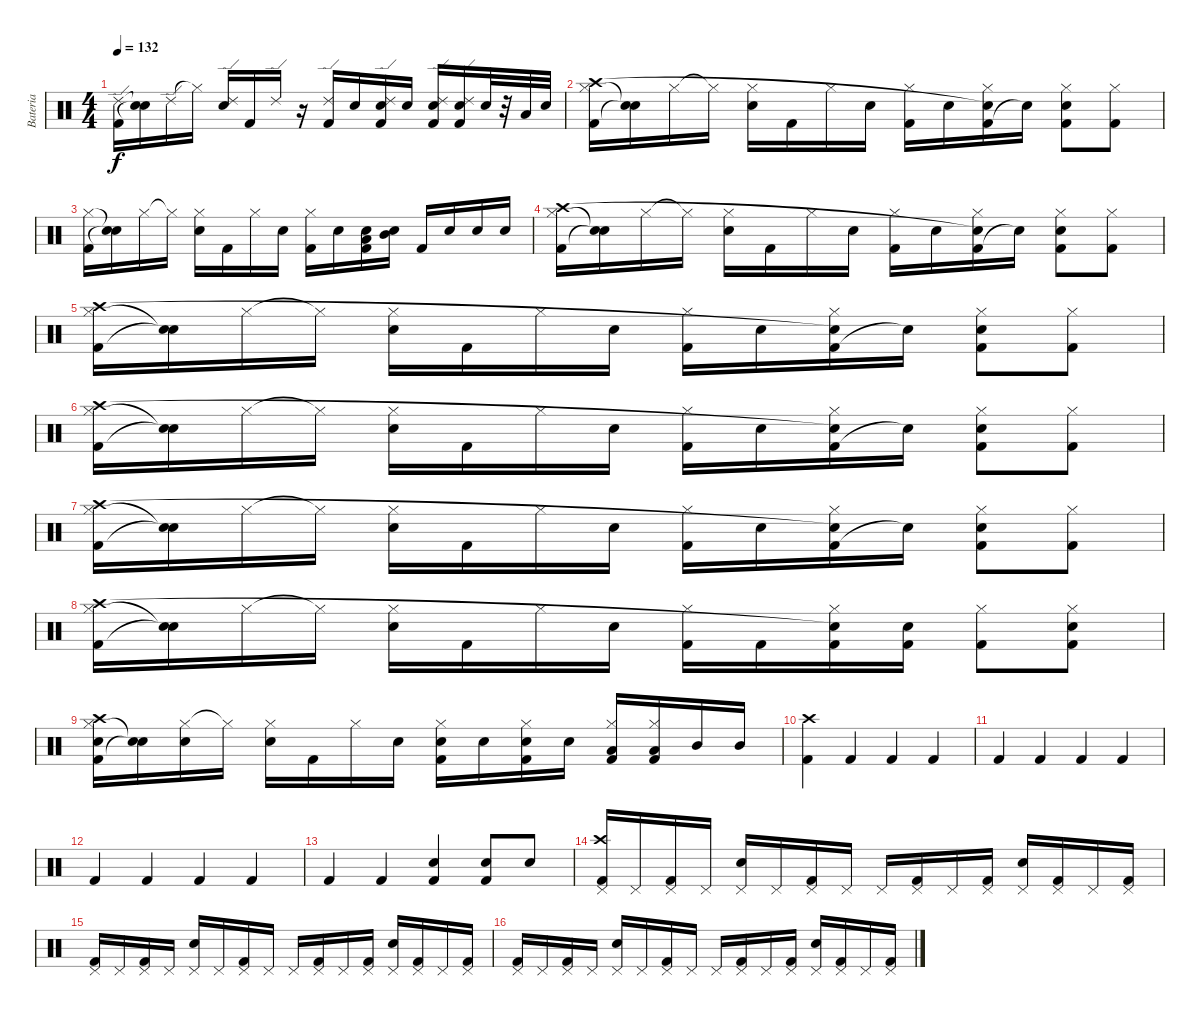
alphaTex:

\track ("Bateria" "Bateria") {instrument percussion}
\staff {score}
\articulation defaults
\ts (4 4)
\tempo 132
\clef neutral
\ks c
("Kick (hit) 2" "Ride (edge) 2").16{dy f} ("Snare (hit)"{t} "Electric Snare (hit)"{t}).16 "Ride (edge) 2".16 "Hi-Hat (closed)"{t}.16 ("Ride (edge) 2" "Electric Snare (hit)").16 "Kick (hit) 2".16 "Ride (edge) 2".16 r.16 ("Kick (hit) 2" "Ride (edge) 2").16 "Electric Snare (hit)".16 ("Kick (hit) 2" "Ride (edge) 2" "Snare (hit)"{t}).16 "Electric Snare (hit)".16 ("Kick (hit) 2" "Ride (edge) 2" "Electric Snare (hit)").16 ("Kick (hit) 2" "Ride (edge) 2" "Electric Snare (hit)").16 "Electric Snare (hit)".32 r.32 "Low Tom (hit)".32 "Electric Snare (hit)".32 |
("Kick (hit) 2" "Hi-Hat (closed)" "Crash high (hit)").16 ("Snare (hit)"{t} "Electric Snare (hit)"{t}).16 "Hi-Hat (closed)".16 "Hi-Hat (closed)"{t}.16 ("Hi-Hat (closed)" "Electric Snare (hit)").16 "Kick (hit) 2".16 "Hi-Hat (closed)".16 "Electric Snare (hit)".16 ("Kick (hit) 2" "Hi-Hat (closed)").16 "Electric Snare (hit)".16 ("Kick (hit) 2" "Hi-Hat (closed)" "Snare (hit)"{t}).16 "Electric Snare (hit)"{t}.16 ("Kick (hit) 2" "Hi-Hat (closed)" "Electric Snare (hit)").8 ("Kick (hit) 2" "Hi-Hat (closed)").8 |
("Kick (hit) 2" "Hi-Hat (closed)").16 ("Snare (hit)"{t} "Electric Snare (hit)"{t}).16 "Hi-Hat (closed)".16 "Hi-Hat (closed)"{t}.16 ("Hi-Hat (closed)" "Electric Snare (hit)").16 "Kick (hit) 2".16 "Hi-Hat (closed)".16 "Electric Snare (hit)".16 ("Kick (hit) 2" "Hi-Hat (closed)").16 "Electric Snare (hit)".16 ("Kick (hit) 2" "Electric Snare (hit)" "Low Tom (hit)").16 ("Electric Snare (hit)" "Mid Tom (hit)").16 "Kick (hit) 2".16 "Electric Snare (hit)".16 "Electric Snare (hit)".16 "Electric Snare (hit)".16 |
("Kick (hit) 2" "Hi-Hat (closed)" "Crash high (hit)").16 ("Snare (hit)"{t} "Electric Snare (hit)"{t}).16 "Hi-Hat (closed)".16 "Hi-Hat (closed)"{t}.16 ("Hi-Hat (closed)" "Electric Snare (hit)").16 "Kick (hit) 2".16 "Hi-Hat (closed)".16 "Electric Snare (hit)".16 ("Kick (hit) 2" "Hi-Hat (closed)").16 "Electric Snare (hit)".16 ("Kick (hit) 2" "Hi-Hat (closed)" "Snare (hit)"{t}).16 "Electric Snare (hit)"{t}.16 ("Kick (hit) 2" "Hi-Hat (closed)" "Electric Snare (hit)").8 ("Kick (hit) 2" "Hi-Hat (closed)").8 |
("Kick (hit) 2" "Hi-Hat (closed)" "Crash high (hit)").16 ("Snare (hit)"{t} "Electric Snare (hit)"{t}).16 "Hi-Hat (closed)".16 "Hi-Hat (closed)"{t}.16 ("Hi-Hat (closed)" "Electric Snare (hit)").16 "Kick (hit) 2".16 "Hi-Hat (closed)".16 "Electric Snare (hit)".16 ("Kick (hit) 2" "Hi-Hat (closed)").16 "Electric Snare (hit)".16 ("Kick (hit) 2" "Hi-Hat (closed)" "Snare (hit)"{t}).16 "Electric Snare (hit)"{t}.16 ("Kick (hit) 2" "Hi-Hat (closed)" "Electric Snare (hit)").8 ("Kick (hit) 2" "Hi-Hat (closed)").8 |
("Kick (hit) 2" "Hi-Hat (closed)" "Crash high (hit)").16 ("Snare (hit)"{t} "Electric Snare (hit)"{t}).16 "Hi-Hat (closed)".16 "Hi-Hat (closed)"{t}.16 ("Hi-Hat (closed)" "Electric Snare (hit)").16 "Kick (hit) 2".16 "Hi-Hat (closed)".16 "Electric Snare (hit)".16 ("Kick (hit) 2" "Hi-Hat (closed)").16 "Electric Snare (hit)".16 ("Kick (hit) 2" "Hi-Hat (closed)" "Snare (hit)"{t}).16 "Electric Snare (hit)"{t}.16 ("Kick (hit) 2" "Hi-Hat (closed)" "Electric Snare (hit)").8 ("Kick (hit) 2" "Hi-Hat (closed)").8 |
("Kick (hit) 2" "Hi-Hat (closed)" "Crash high (hit)").16 ("Snare (hit)"{t} "Electric Snare (hit)"{t}).16 "Hi-Hat (closed)".16 "Hi-Hat (closed)"{t}.16 ("Hi-Hat (closed)" "Electric Snare (hit)").16 "Kick (hit) 2".16 "Hi-Hat (closed)".16 "Electric Snare (hit)".16 ("Kick (hit) 2" "Hi-Hat (closed)").16 "Electric Snare (hit)".16 ("Kick (hit) 2" "Hi-Hat (closed)" "Snare (hit)"{t}).16 "Electric Snare (hit)"{t}.16 ("Kick (hit) 2" "Hi-Hat (closed)" "Electric Snare (hit)").8 ("Kick (hit) 2" "Hi-Hat (closed)").8 |
("Kick (hit) 2" "Hi-Hat (closed)" "Crash high (hit)").16 ("Snare (hit)"{t} "Electric Snare (hit)"{t}).16 "Hi-Hat (closed)".16 "Hi-Hat (closed)"{t}.16 ("Hi-Hat (closed)" "Electric Snare (hit)").16 "Kick (hit) 2".16 "Hi-Hat (closed)".16 "Electric Snare (hit)".16 ("Kick (hit) 2" "Hi-Hat (closed)").16 "Kick (hit) 2".16 ("Kick (hit) 2" "Hi-Hat (closed)" "Snare (hit)"{t}).16 ("Kick (hit) 2" "Electric Snare (hit)").16 ("Kick (hit) 2" "Hi-Hat (closed)").8 ("Kick (hit) 2" "Hi-Hat (closed)" "Electric Snare (hit)").8 |
("Kick (hit) 2" "Hi-Hat (closed)" "Electric Snare (hit)" "Crash high (hit)").16 ("Snare (hit)"{t} "Electric Snare (hit)"{t}).16 ("Hi-Hat (closed)" "Electric Snare (hit)").16 "Hi-Hat (closed)"{t}.16 ("Hi-Hat (closed)" "Electric Snare (hit)").16 "Kick (hit) 2".16 "Hi-Hat (closed)".16 "Electric Snare (hit)".16 ("Kick (hit) 2" "Hi-Hat (closed)" "Electric Snare (hit)").16 "Electric Snare (hit)".16 ("Kick (hit) 2" "Hi-Hat (closed)" "Electric Snare (hit)").16 "Electric Snare (hit)".16 ("Kick (hit) 2" "Hi-Hat (closed)" "Low Tom (hit)").16 ("Kick (hit) 2" "Hi-Hat (closed)" "Low Tom (hit)").16 "Mid Tom (hit)".16 "Mid Tom (hit)".16 |
("Kick (hit) 2" "Crash high (hit)").4 "Kick (hit) 2".4 "Kick (hit) 2".4 "Kick (hit) 2".4 |
"Kick (hit) 2".4 "Kick (hit) 2".4 "Kick (hit) 2".4 "Kick (hit) 2".4 |
"Kick (hit) 2".4 "Kick (hit) 2".4 "Kick (hit) 2".4 "Kick (hit) 2".4 |
"Kick (hit) 2".4 "Kick (hit) 2".4 ("Kick (hit) 2" "Electric Snare (hit)").4 ("Kick (hit) 2" "Electric Snare (hit)").8 "Electric Snare (hit)".8 |
("Kick (hit) 2" "Pedal Hi-Hat (hit)" "Crash high (hit)").16 "Pedal Hi-Hat (hit)".16 ("Kick (hit) 2" "Pedal Hi-Hat (hit)").16 "Pedal Hi-Hat (hit)".16 ("Pedal Hi-Hat (hit)" "Electric Snare (hit)").16 "Pedal Hi-Hat (hit)".16 ("Kick (hit) 2" "Pedal Hi-Hat (hit)").16 "Pedal Hi-Hat (hit)".16 "Pedal Hi-Hat (hit)".16 ("Kick (hit) 2" "Pedal Hi-Hat (hit)").16 "Pedal Hi-Hat (hit)".16 ("Kick (hit) 2" "Pedal Hi-Hat (hit)").16 ("Pedal Hi-Hat (hit)" "Electric Snare (hit)").16 ("Kick (hit) 2" "Pedal Hi-Hat (hit)").16 "Pedal Hi-Hat (hit)".16 ("Kick (hit) 2" "Pedal Hi-Hat (hit)").16 |
("Kick (hit) 2" "Pedal Hi-Hat (hit)").16 "Pedal Hi-Hat (hit)".16 ("Kick (hit) 2" "Pedal Hi-Hat (hit)").16 "Pedal Hi-Hat (hit)".16 ("Pedal Hi-Hat (hit)" "Electric Snare (hit)").16 "Pedal Hi-Hat (hit)".16 ("Kick (hit) 2" "Pedal Hi-Hat (hit)").16 "Pedal Hi-Hat (hit)".16 "Pedal Hi-Hat (hit)".16 ("Kick (hit) 2" "Pedal Hi-Hat (hit)").16 "Pedal Hi-Hat (hit)".16 ("Kick (hit) 2" "Pedal Hi-Hat (hit)").16 ("Pedal Hi-Hat (hit)" "Electric Snare (hit)").16 ("Kick (hit) 2" "Pedal Hi-Hat (hit)").16 "Pedal Hi-Hat (hit)".16 ("Kick (hit) 2" "Pedal Hi-Hat (hit)").16 |
("Kick (hit) 2" "Pedal Hi-Hat (hit)").16 "Pedal Hi-Hat (hit)".16 ("Kick (hit) 2" "Pedal Hi-Hat (hit)").16 "Pedal Hi-Hat (hit)".16 ("Pedal Hi-Hat (hit)" "Electric Snare (hit)").16 "Pedal Hi-Hat (hit)".16 ("Kick (hit) 2" "Pedal Hi-Hat (hit)").16 "Pedal Hi-Hat (hit)".16 "Pedal Hi-Hat (hit)".16 ("Kick (hit) 2" "Pedal Hi-Hat (hit)").16 "Pedal Hi-Hat (hit)".16 ("Kick (hit) 2" "Pedal Hi-Hat (hit)").16 ("Pedal Hi-Hat (hit)" "Electric Snare (hit)").16 ("Kick (hit) 2" "Pedal Hi-Hat (hit)").16 "Pedal Hi-Hat (hit)".16 ("Kick (hit) 2" "Pedal Hi-Hat (hit)").16
